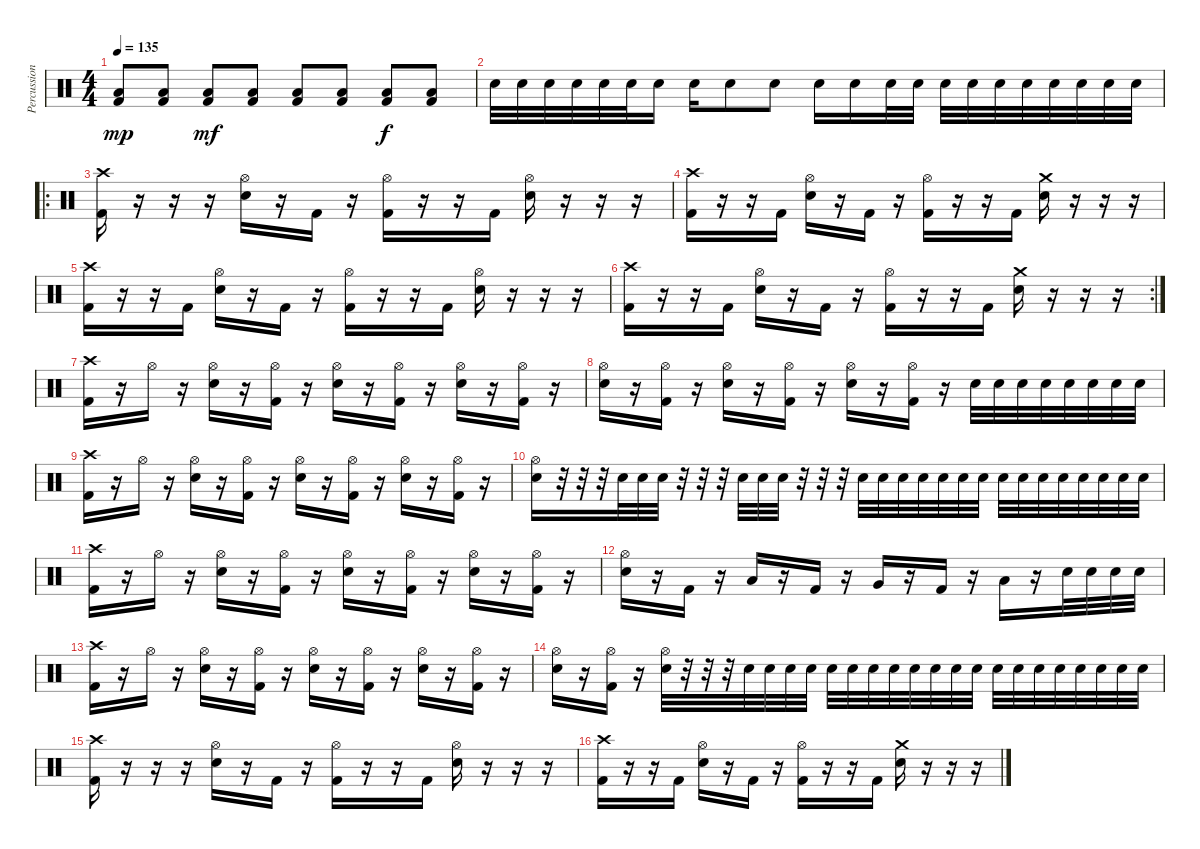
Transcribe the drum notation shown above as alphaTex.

\track ("Percussion" "Percussion") {instrument percussion}
\staff {score}
\articulation defaults
\ts (4 4)
\tempo 135
\clef neutral
\ks c
("Low Floor Tom (hit)" "Kick (hit) 2").8{dy mp} ("Low Floor Tom (hit)" "Kick (hit) 2").8 ("Low Floor Tom (hit)" "Kick (hit) 2").8{dy mf} ("Low Floor Tom (hit)" "Kick (hit) 2").8 ("Low Floor Tom (hit)" "Kick (hit) 2").8 ("Low Floor Tom (hit)" "Kick (hit) 2").8 ("Low Floor Tom (hit)" "Kick (hit) 2").8{dy f} ("Low Floor Tom (hit)" "Kick (hit) 2").8 |
"Snare (hit) 2".32 "Snare (hit) 2".32 "Snare (hit) 2".32 "Snare (hit) 2".32 "Snare (hit) 2".32 "Snare (hit) 2".32 "Snare (hit) 2".16 "Snare (hit) 2".16 "Snare (hit) 2".8 "Snare (hit) 2".8 "Snare (hit) 2".16 "Snare (hit) 2".16 "Snare (hit) 2".32 "Snare (hit) 2".32 "Snare (hit) 2".32 "Snare (hit) 2".32 "Snare (hit) 2".32 "Snare (hit) 2".32 "Snare (hit) 2".32 "Snare (hit) 2".32 "Snare (hit) 2".32 "Snare (hit) 2".32 |
\ro
("Crash high (hit)" "Kick (hit) 2").16 r.16 r.16 r.16 ("Hi-Hat (open)" "Snare (hit) 2").16 r.16 "Kick (hit) 2".16 r.16 ("Hi-Hat (open)" "Kick (hit) 2").16 r.16 r.16 "Kick (hit) 2".16 ("Hi-Hat (open)" "Snare (hit) 2").16 r.16 r.16 r.16 |
("Crash high (hit)" "Kick (hit) 2").16 r.16 r.16 "Kick (hit) 2".16 ("Hi-Hat (open)" "Snare (hit) 2").16 r.16 "Kick (hit) 2".16 r.16 ("Hi-Hat (open)" "Kick (hit) 2").16 r.16 r.16 "Kick (hit) 2".16 ("Crash medium (hit)" "Snare (hit) 2").16 r.16 r.16 r.16 |
("Crash high (hit)" "Kick (hit) 2").16 r.16 r.16 "Kick (hit) 2".16 ("Hi-Hat (open)" "Snare (hit) 2").16 r.16 "Kick (hit) 2".16 r.16 ("Hi-Hat (open)" "Kick (hit) 2").16 r.16 r.16 "Kick (hit) 2".16 ("Hi-Hat (open)" "Snare (hit) 2").16 r.16 r.16 r.16 |
\rc 2
("Crash high (hit)" "Kick (hit) 2").16 r.16 r.16 "Kick (hit) 2".16 ("Hi-Hat (open)" "Snare (hit) 2").16 r.16 "Kick (hit) 2".16 r.16 ("Hi-Hat (open)" "Kick (hit) 2").16 r.16 r.16 "Kick (hit) 2".16 ("Crash medium (hit)" "Snare (hit) 2").16 r.16 r.16 r.16 |
("Crash high (hit)" "Kick (hit) 2").16 r.16 "Hi-Hat (open)".16 r.16 ("Hi-Hat (open)" "Snare (hit) 2").16 r.16 ("Hi-Hat (open)" "Kick (hit) 2").16 r.16 ("Hi-Hat (open)" "Snare (hit) 2").16 r.16 ("Hi-Hat (open)" "Kick (hit) 2").16 r.16 ("Hi-Hat (open)" "Snare (hit) 2").16 r.16 ("Hi-Hat (open)" "Kick (hit) 2").16 r.16 |
("Hi-Hat (open)" "Snare (hit) 2").16 r.16 ("Hi-Hat (open)" "Kick (hit) 2").16 r.16 ("Hi-Hat (open)" "Snare (hit) 2").16 r.16 ("Hi-Hat (open)" "Kick (hit) 2").16 r.16 ("Hi-Hat (open)" "Snare (hit) 2").16 r.16 ("Hi-Hat (open)" "Kick (hit) 2").16 r.16 "Snare (hit) 2".32 "Snare (hit) 2".32 "Snare (hit) 2".32 "Snare (hit) 2".32 "Snare (hit) 2".32 "Snare (hit) 2".32 "Snare (hit) 2".32 "Snare (hit) 2".32 |
("Crash high (hit)" "Kick (hit) 2").16 r.16 "Hi-Hat (open)".16 r.16 ("Hi-Hat (open)" "Snare (hit) 2").16 r.16 ("Hi-Hat (open)" "Kick (hit) 2").16 r.16 ("Hi-Hat (open)" "Snare (hit) 2").16 r.16 ("Hi-Hat (open)" "Kick (hit) 2").16 r.16 ("Hi-Hat (open)" "Snare (hit) 2").16 r.16 ("Hi-Hat (open)" "Kick (hit) 2").16 r.16 |
("Hi-Hat (open)" "Snare (hit) 2").16 r.32 r.32 r.32 "Snare (hit) 2".32 "Snare (hit) 2".32 "Snare (hit) 2".32 r.32 r.32 r.32 "Snare (hit) 2".32 "Snare (hit) 2".32 "Snare (hit) 2".32 r.32 r.32 r.32 "Snare (hit) 2".32 "Snare (hit) 2".32 "Snare (hit) 2".32 "Snare (hit) 2".32 "Snare (hit) 2".32 "Snare (hit) 2".32 "Snare (hit) 2".32 "Snare (hit) 2".32 "Snare (hit) 2".32 "Snare (hit) 2".32 "Snare (hit) 2".32 "Snare (hit) 2".32 "Snare (hit) 2".32 "Snare (hit) 2".32 "Snare (hit) 2".32 |
("Crash high (hit)" "Kick (hit) 2").16 r.16 "Hi-Hat (open)".16 r.16 ("Hi-Hat (open)" "Snare (hit) 2").16 r.16 ("Hi-Hat (open)" "Kick (hit) 2").16 r.16 ("Hi-Hat (open)" "Snare (hit) 2").16 r.16 ("Hi-Hat (open)" "Kick (hit) 2").16 r.16 ("Hi-Hat (open)" "Snare (hit) 2").16 r.16 ("Hi-Hat (open)" "Kick (hit) 2").16 r.16 |
("Hi-Hat (open)" "Snare (hit) 2").16 r.16 "Kick (hit) 2".16 r.16 "Low Tom (hit)".16 r.16 "Kick (hit) 2".16 r.16 "Very Low Tom (hit)".16 r.16 "Kick (hit) 2".16 r.16 "Low Floor Tom (hit)".16 r.16 "Snare (hit) 2".32 "Snare (hit) 2".32 "Snare (hit) 2".32 "Snare (hit) 2".32 |
("Crash high (hit)" "Kick (hit) 2").16 r.16 "Hi-Hat (open)".16 r.16 ("Hi-Hat (open)" "Snare (hit) 2").16 r.16 ("Hi-Hat (open)" "Kick (hit) 2").16 r.16 ("Hi-Hat (open)" "Snare (hit) 2").16 r.16 ("Hi-Hat (open)" "Kick (hit) 2").16 r.16 ("Hi-Hat (open)" "Snare (hit) 2").16 r.16 ("Hi-Hat (open)" "Kick (hit) 2").16 r.16 |
("Hi-Hat (open)" "Snare (hit) 2").16 r.16 ("Hi-Hat (open)" "Kick (hit) 2").16 r.16 ("Hi-Hat (open)" "Snare (hit) 2").32 r.32 r.32 r.32 "Snare (hit) 2".32 "Snare (hit) 2".32 "Snare (hit) 2".32 "Snare (hit) 2".32 "Snare (hit) 2".32 "Snare (hit) 2".32 "Snare (hit) 2".32 "Snare (hit) 2".32 "Snare (hit) 2".32 "Snare (hit) 2".32 "Snare (hit) 2".32 "Snare (hit) 2".32 "Snare (hit) 2".32 "Snare (hit) 2".32 "Snare (hit) 2".32 "Snare (hit) 2".32 "Snare (hit) 2".32 "Snare (hit) 2".32 "Snare (hit) 2".32 "Snare (hit) 2".32 |
("Crash high (hit)" "Kick (hit) 2").16 r.16 r.16 r.16 ("Hi-Hat (open)" "Snare (hit) 2").16 r.16 "Kick (hit) 2".16 r.16 ("Hi-Hat (open)" "Kick (hit) 2").16 r.16 r.16 "Kick (hit) 2".16 ("Hi-Hat (open)" "Snare (hit) 2").16 r.16 r.16 r.16 |
("Crash high (hit)" "Kick (hit) 2").16 r.16 r.16 "Kick (hit) 2".16 ("Hi-Hat (open)" "Snare (hit) 2").16 r.16 "Kick (hit) 2".16 r.16 ("Hi-Hat (open)" "Kick (hit) 2").16 r.16 r.16 "Kick (hit) 2".16 ("Crash medium (hit)" "Snare (hit) 2").16 r.16 r.16 r.16
